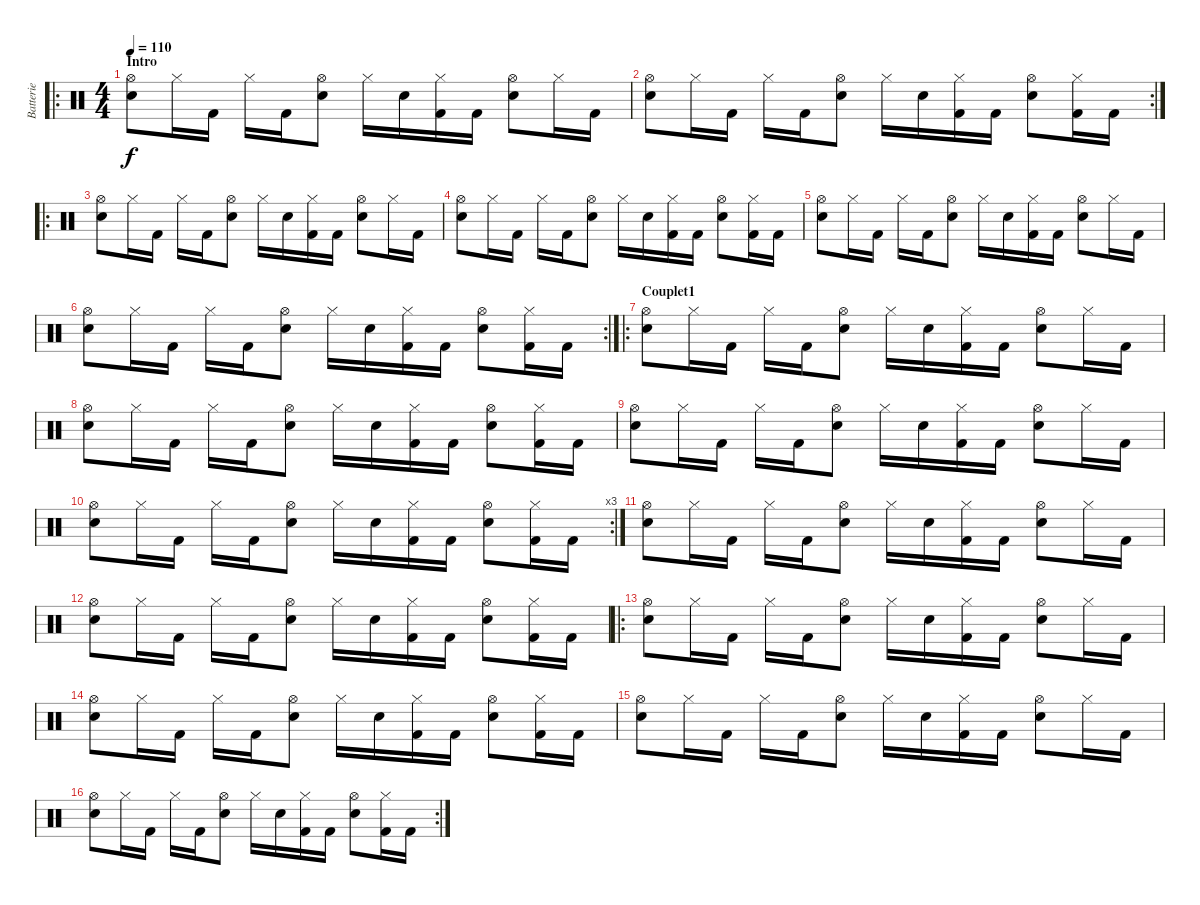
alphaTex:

\track ("Batterie" "Batterie") {instrument percussion}
\staff {score}
\articulation defaults
\ro
\ts (4 4)
\section ("" "Intro")
\tempo 110
\clef neutral
\ks c
("Hi-Hat (open)" "Electric Snare (hit)").8{dy f} "Hi-Hat (closed)".16 "Kick (hit) 2".16 "Hi-Hat (closed)".16 "Kick (hit) 2".16 ("Hi-Hat (open)" "Electric Snare (hit)").8 "Hi-Hat (closed)".16 "Electric Snare (hit)".16 ("Kick (hit) 2" "Hi-Hat (closed)").16 "Kick (hit) 2".16 ("Hi-Hat (open)" "Electric Snare (hit)").8 "Hi-Hat (closed)".16 "Kick (hit) 2".16 |
\rc 2
("Hi-Hat (open)" "Electric Snare (hit)").8 "Hi-Hat (closed)".16 "Kick (hit) 2".16 "Hi-Hat (closed)".16 "Kick (hit) 2".16 ("Hi-Hat (open)" "Electric Snare (hit)").8 "Hi-Hat (closed)".16 "Electric Snare (hit)".16 ("Kick (hit) 2" "Hi-Hat (closed)").16 "Kick (hit) 2".16 ("Hi-Hat (open)" "Electric Snare (hit)").8 ("Kick (hit) 2" "Hi-Hat (closed)").16 "Kick (hit) 2".16 |
\ro
("Hi-Hat (open)" "Electric Snare (hit)").8 "Hi-Hat (closed)".16 "Kick (hit) 2".16 "Hi-Hat (closed)".16 "Kick (hit) 2".16 ("Hi-Hat (open)" "Electric Snare (hit)").8 "Hi-Hat (closed)".16 "Electric Snare (hit)".16 ("Kick (hit) 2" "Hi-Hat (closed)").16 "Kick (hit) 2".16 ("Hi-Hat (open)" "Electric Snare (hit)").8 "Hi-Hat (closed)".16 "Kick (hit) 2".16 |
("Hi-Hat (open)" "Electric Snare (hit)").8 "Hi-Hat (closed)".16 "Kick (hit) 2".16 "Hi-Hat (closed)".16 "Kick (hit) 2".16 ("Hi-Hat (open)" "Electric Snare (hit)").8 "Hi-Hat (closed)".16 "Electric Snare (hit)".16 ("Kick (hit) 2" "Hi-Hat (closed)").16 "Kick (hit) 2".16 ("Hi-Hat (open)" "Electric Snare (hit)").8 ("Kick (hit) 2" "Hi-Hat (closed)").16 "Kick (hit) 2".16 |
("Hi-Hat (open)" "Electric Snare (hit)").8 "Hi-Hat (closed)".16 "Kick (hit) 2".16 "Hi-Hat (closed)".16 "Kick (hit) 2".16 ("Hi-Hat (open)" "Electric Snare (hit)").8 "Hi-Hat (closed)".16 "Electric Snare (hit)".16 ("Kick (hit) 2" "Hi-Hat (closed)").16 "Kick (hit) 2".16 ("Hi-Hat (open)" "Electric Snare (hit)").8 "Hi-Hat (closed)".16 "Kick (hit) 2".16 |
\rc 2
("Hi-Hat (open)" "Electric Snare (hit)").8 "Hi-Hat (closed)".16 "Kick (hit) 2".16 "Hi-Hat (closed)".16 "Kick (hit) 2".16 ("Hi-Hat (open)" "Electric Snare (hit)").8 "Hi-Hat (closed)".16 "Electric Snare (hit)".16 ("Kick (hit) 2" "Hi-Hat (closed)").16 "Kick (hit) 2".16 ("Hi-Hat (open)" "Electric Snare (hit)").8 ("Kick (hit) 2" "Hi-Hat (closed)").16 "Kick (hit) 2".16 |
\ro
\section ("" "Couplet1")
("Hi-Hat (open)" "Electric Snare (hit)").8 "Hi-Hat (closed)".16 "Kick (hit) 2".16 "Hi-Hat (closed)".16 "Kick (hit) 2".16 ("Hi-Hat (open)" "Electric Snare (hit)").8 "Hi-Hat (closed)".16 "Electric Snare (hit)".16 ("Kick (hit) 2" "Hi-Hat (closed)").16 "Kick (hit) 2".16 ("Hi-Hat (open)" "Electric Snare (hit)").8 "Hi-Hat (closed)".16 "Kick (hit) 2".16 |
("Hi-Hat (open)" "Electric Snare (hit)").8 "Hi-Hat (closed)".16 "Kick (hit) 2".16 "Hi-Hat (closed)".16 "Kick (hit) 2".16 ("Hi-Hat (open)" "Electric Snare (hit)").8 "Hi-Hat (closed)".16 "Electric Snare (hit)".16 ("Kick (hit) 2" "Hi-Hat (closed)").16 "Kick (hit) 2".16 ("Hi-Hat (open)" "Electric Snare (hit)").8 ("Kick (hit) 2" "Hi-Hat (closed)").16 "Kick (hit) 2".16 |
("Hi-Hat (open)" "Electric Snare (hit)").8 "Hi-Hat (closed)".16 "Kick (hit) 2".16 "Hi-Hat (closed)".16 "Kick (hit) 2".16 ("Hi-Hat (open)" "Electric Snare (hit)").8 "Hi-Hat (closed)".16 "Electric Snare (hit)".16 ("Kick (hit) 2" "Hi-Hat (closed)").16 "Kick (hit) 2".16 ("Hi-Hat (open)" "Electric Snare (hit)").8 "Hi-Hat (closed)".16 "Kick (hit) 2".16 |
\rc 3
("Hi-Hat (open)" "Electric Snare (hit)").8 "Hi-Hat (closed)".16 "Kick (hit) 2".16 "Hi-Hat (closed)".16 "Kick (hit) 2".16 ("Hi-Hat (open)" "Electric Snare (hit)").8 "Hi-Hat (closed)".16 "Electric Snare (hit)".16 ("Kick (hit) 2" "Hi-Hat (closed)").16 "Kick (hit) 2".16 ("Hi-Hat (open)" "Electric Snare (hit)").8 ("Kick (hit) 2" "Hi-Hat (closed)").16 "Kick (hit) 2".16 |
("Hi-Hat (open)" "Electric Snare (hit)").8 "Hi-Hat (closed)".16 "Kick (hit) 2".16 "Hi-Hat (closed)".16 "Kick (hit) 2".16 ("Hi-Hat (open)" "Electric Snare (hit)").8 "Hi-Hat (closed)".16 "Electric Snare (hit)".16 ("Kick (hit) 2" "Hi-Hat (closed)").16 "Kick (hit) 2".16 ("Hi-Hat (open)" "Electric Snare (hit)").8 "Hi-Hat (closed)".16 "Kick (hit) 2".16 |
("Hi-Hat (open)" "Electric Snare (hit)").8 "Hi-Hat (closed)".16 "Kick (hit) 2".16 "Hi-Hat (closed)".16 "Kick (hit) 2".16 ("Hi-Hat (open)" "Electric Snare (hit)").8 "Hi-Hat (closed)".16 "Electric Snare (hit)".16 ("Kick (hit) 2" "Hi-Hat (closed)").16 "Kick (hit) 2".16 ("Hi-Hat (open)" "Electric Snare (hit)").8 ("Kick (hit) 2" "Hi-Hat (closed)").16 "Kick (hit) 2".16 |
\ro
("Hi-Hat (open)" "Electric Snare (hit)").8 "Hi-Hat (closed)".16 "Kick (hit) 2".16 "Hi-Hat (closed)".16 "Kick (hit) 2".16 ("Hi-Hat (open)" "Electric Snare (hit)").8 "Hi-Hat (closed)".16 "Electric Snare (hit)".16 ("Kick (hit) 2" "Hi-Hat (closed)").16 "Kick (hit) 2".16 ("Hi-Hat (open)" "Electric Snare (hit)").8 "Hi-Hat (closed)".16 "Kick (hit) 2".16 |
("Hi-Hat (open)" "Electric Snare (hit)").8 "Hi-Hat (closed)".16 "Kick (hit) 2".16 "Hi-Hat (closed)".16 "Kick (hit) 2".16 ("Hi-Hat (open)" "Electric Snare (hit)").8 "Hi-Hat (closed)".16 "Electric Snare (hit)".16 ("Kick (hit) 2" "Hi-Hat (closed)").16 "Kick (hit) 2".16 ("Hi-Hat (open)" "Electric Snare (hit)").8 ("Kick (hit) 2" "Hi-Hat (closed)").16 "Kick (hit) 2".16 |
("Hi-Hat (open)" "Electric Snare (hit)").8 "Hi-Hat (closed)".16 "Kick (hit) 2".16 "Hi-Hat (closed)".16 "Kick (hit) 2".16 ("Hi-Hat (open)" "Electric Snare (hit)").8 "Hi-Hat (closed)".16 "Electric Snare (hit)".16 ("Kick (hit) 2" "Hi-Hat (closed)").16 "Kick (hit) 2".16 ("Hi-Hat (open)" "Electric Snare (hit)").8 "Hi-Hat (closed)".16 "Kick (hit) 2".16 |
\rc 2
("Hi-Hat (open)" "Electric Snare (hit)").8 "Hi-Hat (closed)".16 "Kick (hit) 2".16 "Hi-Hat (closed)".16 "Kick (hit) 2".16 ("Hi-Hat (open)" "Electric Snare (hit)").8 "Hi-Hat (closed)".16 "Electric Snare (hit)".16 ("Kick (hit) 2" "Hi-Hat (closed)").16 "Kick (hit) 2".16 ("Hi-Hat (open)" "Electric Snare (hit)").8 ("Kick (hit) 2" "Hi-Hat (closed)").16 "Kick (hit) 2".16
